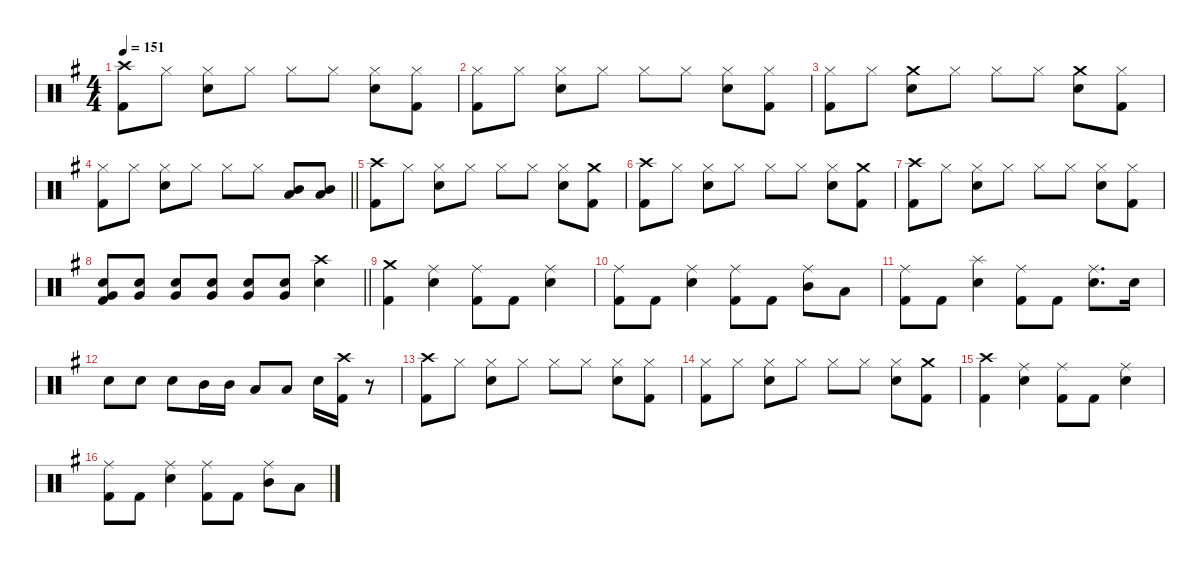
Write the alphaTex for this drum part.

\defaultSystemsLayout 4
\hideDynamics
\bracketExtendMode nobrackets
\singleTrackTrackNamePolicy hidden
\multiTrackTrackNamePolicy hidden
\otherSystemsTrackNameOrientation horizontal
\track ("Lars Ulrich" "drm.") {instrument percussion}
\staff {score}
\articulation defaults
\ts (4 4)
\tempo 151
\clef neutral
\ks eminor
("Crash high (hit)"{acc forcenatural} "Kick (hit) 2"{acc forcenatural}).8{dy f beam Down} "Hi-Hat (closed)"{acc forcenatural}.8{beam Down} ("Hi-Hat (closed)"{acc forcenatural} "Snare (hit) 2"{acc forcenatural}).8{beam Down} "Hi-Hat (closed)"{acc forcenatural}.8{beam Down} "Hi-Hat (closed)"{acc forcenatural}.8{beam Down} "Hi-Hat (closed)"{acc forcenatural}.8{beam Down} ("Hi-Hat (closed)"{acc forcenatural} "Snare (hit) 2"{acc forcenatural}).8{beam Down} ("Hi-Hat (closed)"{acc forcenatural} "Kick (hit) 2"{acc forcenatural}).8{beam Down} |
("Hi-Hat (closed)"{acc forcenatural} "Kick (hit) 2"{acc forcenatural}).8{beam Down} "Hi-Hat (closed)"{acc forcenatural}.8{beam Down} ("Hi-Hat (closed)"{acc forcenatural} "Snare (hit) 2"{acc forcenatural}).8{beam Down} "Hi-Hat (closed)"{acc forcenatural}.8{beam Down} "Hi-Hat (closed)"{acc forcenatural}.8{beam Down} "Hi-Hat (closed)"{acc forcenatural}.8{beam Down} ("Hi-Hat (closed)"{acc forcenatural} "Snare (hit) 2"{acc forcenatural}).8{beam Down} ("Hi-Hat (closed)"{acc forcenatural} "Kick (hit) 2"{acc forcenatural}).8{beam Down} |
("Hi-Hat (closed)"{acc forcenatural} "Kick (hit) 2"{acc forcenatural}).8{beam Down} "Hi-Hat (closed)"{acc forcenatural}.8{beam Down} ("Crash medium (hit)"{acc forcenatural} "Snare (hit) 2"{acc forcenatural}).8{beam Down} "Hi-Hat (closed)"{acc forcenatural}.8{beam Down} "Hi-Hat (closed)"{acc forcenatural}.8{beam Down} "Hi-Hat (closed)"{acc forcenatural}.8{beam Down} ("Crash medium (hit)"{acc forcenatural} "Snare (hit) 2"{acc forcenatural}).8{beam Down} ("Hi-Hat (closed)"{acc forcenatural} "Kick (hit) 2"{acc forcenatural}).8{beam Down} |
\barLineRight lightlight
("Hi-Hat (closed)"{acc forcenatural} "Kick (hit) 2"{acc forcenatural}).8{beam Down} "Hi-Hat (closed)"{acc forcenatural}.8{beam Down} ("Hi-Hat (closed)"{acc forcenatural} "Snare (hit) 2"{acc forcenatural}).8{beam Down} "Hi-Hat (closed)"{acc forcenatural}.8{beam Down} "Hi-Hat (closed)"{acc forcenatural}.8{beam Down} "Hi-Hat (closed)"{acc forcenatural}.8{beam Down} ("Low Tom (hit)"{acc forcenatural} "Mid Tom (hit)"{acc forcenatural}).8{beam Up} ("Low Tom (hit)"{acc forcenatural} "Mid Tom (hit)"{acc forcenatural}).8{beam Up} |
("Crash high (hit)"{acc forcenatural} "Kick (hit) 2"{acc forcenatural}).8{beam Down} "Hi-Hat (closed)"{acc forcenatural}.8{beam Down} ("Hi-Hat (closed)"{acc forcenatural} "Snare (hit) 2"{acc forcenatural}).8{beam Down} "Hi-Hat (closed)"{acc forcenatural}.8{beam Down} "Hi-Hat (closed)"{acc forcenatural}.8{beam Down} "Hi-Hat (closed)"{acc forcenatural}.8{beam Down} ("Hi-Hat (closed)"{acc forcenatural} "Snare (hit) 2"{acc forcenatural}).8{beam Down} ("Crash medium (hit)"{acc forcenatural} "Kick (hit) 2"{acc forcenatural}).8{beam Down} |
("Crash high (hit)"{acc forcenatural} "Kick (hit) 2"{acc forcenatural}).8{beam Down} "Hi-Hat (closed)"{acc forcenatural}.8{beam Down} ("Hi-Hat (closed)"{acc forcenatural} "Snare (hit) 2"{acc forcenatural}).8{beam Down} "Hi-Hat (closed)"{acc forcenatural}.8{beam Down} "Hi-Hat (closed)"{acc forcenatural}.8{beam Down} "Hi-Hat (closed)"{acc forcenatural}.8{beam Down} ("Hi-Hat (closed)"{acc forcenatural} "Snare (hit) 2"{acc forcenatural}).8{beam Down} ("Crash medium (hit)"{acc forcenatural} "Kick (hit) 2"{acc forcenatural}).8{beam Down} |
("Crash high (hit)"{acc forcenatural} "Kick (hit) 2"{acc forcenatural}).8{beam Down} "Hi-Hat (closed)"{acc forcenatural}.8{beam Down} ("Hi-Hat (closed)"{acc forcenatural} "Snare (hit) 2"{acc forcenatural}).8{beam Down} "Hi-Hat (closed)"{acc forcenatural}.8{beam Down} "Hi-Hat (closed)"{acc forcenatural}.8{beam Down} "Hi-Hat (closed)"{acc forcenatural}.8{beam Down} ("Hi-Hat (closed)"{acc forcenatural} "Snare (hit) 2"{acc forcenatural}).8{beam Down} ("Hi-Hat (closed)"{acc forcenatural} "Kick (hit) 2"{acc forcenatural}).8{beam Down} |
\barLineRight lightlight
("Very Low Tom (hit)"{acc forcenatural} "Snare (hit) 2"{acc forcenatural} "Kick (hit) 2"{acc forcenatural}).8{beam Up} ("Very Low Tom (hit)"{acc forcenatural} "Snare (hit) 2"{acc forcenatural}).8{beam Up} ("Very Low Tom (hit)"{acc forcenatural} "Snare (hit) 2"{acc forcenatural}).8{beam Up} ("Very Low Tom (hit)"{acc forcenatural} "Snare (hit) 2"{acc forcenatural}).8{beam Up} ("Very Low Tom (hit)"{acc forcenatural} "Snare (hit) 2"{acc forcenatural}).8{beam Up} ("Very Low Tom (hit)"{acc forcenatural} "Snare (hit) 2"{acc forcenatural}).8{beam Up} ("Crash high (hit)"{acc forcenatural} "Snare (hit) 2"{acc forcenatural}).4{beam Down} |
("Crash medium (hit)"{acc forcenatural} "Kick (hit) 2"{acc forcenatural}).4{beam Down} ("Ride (middle)"{acc forcenatural} "Snare (hit) 2"{acc forcenatural}).4{beam Down} ("Ride (middle)"{acc forcenatural} "Kick (hit) 2"{acc forcenatural}).8{beam Down} "Kick (hit) 2"{acc forcenatural}.8{beam Down} ("Ride (middle)"{acc forcenatural} "Snare (hit) 2"{acc forcenatural}).4{beam Down} |
("Ride (middle)"{acc forcenatural} "Kick (hit) 2"{acc forcenatural}).8{beam Down} "Kick (hit) 2"{acc forcenatural}.8{beam Down} ("Ride (middle)"{acc forcenatural} "Snare (hit) 2"{acc forcenatural}).4{beam Down} ("Ride (middle)"{acc forcenatural} "Kick (hit) 2"{acc forcenatural}).8{beam Down} "Kick (hit) 2"{acc forcenatural}.8{beam Down} ("Ride (middle)"{acc forcenatural} "Mid Tom (hit)"{acc forcenatural}).8{beam Down} "Low Tom (hit)"{acc forcenatural}.8{beam Down} |
("Ride (middle)"{acc forcenatural} "Kick (hit) 2"{acc forcenatural}).8{beam Down} "Kick (hit) 2"{acc forcenatural}.8{beam Down} ("Splash (hit)"{acc forcenatural} "Snare (hit) 2"{acc forcenatural}).4{beam Down} ("Ride (middle)"{acc forcenatural} "Kick (hit) 2"{acc forcenatural}).8{beam Down} "Kick (hit) 2"{acc forcenatural}.8{beam Down} ("Ride (middle)"{acc forcenatural} "Snare (hit) 2"{acc forcenatural}).8{d beam Down} "Snare (hit) 2"{acc forcenatural}.16{beam Down} |
"Snare (hit) 2"{acc forcenatural}.8{beam Down} "Snare (hit) 2"{acc forcenatural}.8{beam Down} "Snare (hit) 2"{acc forcenatural}.8{beam Down} "Mid Tom (hit)"{acc forcenatural}.16{beam Down} "Mid Tom (hit)"{acc forcenatural}.16{beam Down} "Low Tom (hit)"{acc forcenatural}.8{beam Up} "Low Tom (hit)"{acc forcenatural}.8{beam Up} "Snare (hit) 2"{acc forcenatural}.16{beam Down} ("Crash high (hit)"{acc forcenatural} "Kick (hit) 2"{acc forcenatural}).16{beam Down} r.8{beam Down} |
("Crash high (hit)"{acc forcenatural} "Kick (hit) 2"{acc forcenatural}).8{beam Down} "Hi-Hat (closed)"{acc forcenatural}.8{beam Down} ("Hi-Hat (closed)"{acc forcenatural} "Snare (hit) 2"{acc forcenatural}).8{beam Down} "Hi-Hat (closed)"{acc forcenatural}.8{beam Down} "Hi-Hat (closed)"{acc forcenatural}.8{beam Down} "Hi-Hat (closed)"{acc forcenatural}.8{beam Down} ("Hi-Hat (closed)"{acc forcenatural} "Snare (hit) 2"{acc forcenatural}).8{beam Down} ("Hi-Hat (closed)"{acc forcenatural} "Kick (hit) 2"{acc forcenatural}).8{beam Down} |
("Hi-Hat (closed)"{acc forcenatural} "Kick (hit) 2"{acc forcenatural}).8{beam Down} "Hi-Hat (closed)"{acc forcenatural}.8{beam Down} ("Hi-Hat (closed)"{acc forcenatural} "Snare (hit) 2"{acc forcenatural}).8{beam Down} "Hi-Hat (closed)"{acc forcenatural}.8{beam Down} "Hi-Hat (closed)"{acc forcenatural}.8{beam Down} "Hi-Hat (closed)"{acc forcenatural}.8{beam Down} ("Hi-Hat (closed)"{acc forcenatural} "Snare (hit) 2"{acc forcenatural}).8{beam Down} ("Crash medium (hit)"{acc forcenatural} "Kick (hit) 2"{acc forcenatural}).8{beam Down} |
("Crash high (hit)"{acc forcenatural} "Kick (hit) 2"{acc forcenatural}).4{beam Down} ("Ride (middle)"{acc forcenatural} "Snare (hit) 2"{acc forcenatural}).4{beam Down} ("Ride (middle)"{acc forcenatural} "Kick (hit) 2"{acc forcenatural}).8{beam Down} "Kick (hit) 2"{acc forcenatural}.8{beam Down} ("Ride (middle)"{acc forcenatural} "Snare (hit) 2"{acc forcenatural}).4{beam Down} |
("Ride (middle)"{acc forcenatural} "Kick (hit) 2"{acc forcenatural}).8{beam Down} "Kick (hit) 2"{acc forcenatural}.8{beam Down} ("Ride (middle)"{acc forcenatural} "Snare (hit) 2"{acc forcenatural}).4{beam Down} ("Ride (middle)"{acc forcenatural} "Kick (hit) 2"{acc forcenatural}).8{beam Down} "Kick (hit) 2"{acc forcenatural}.8{beam Down} ("Ride (middle)"{acc forcenatural} "Mid Tom (hit)"{acc forcenatural}).8{beam Down} "Low Tom (hit)"{acc forcenatural}.8{beam Down}
